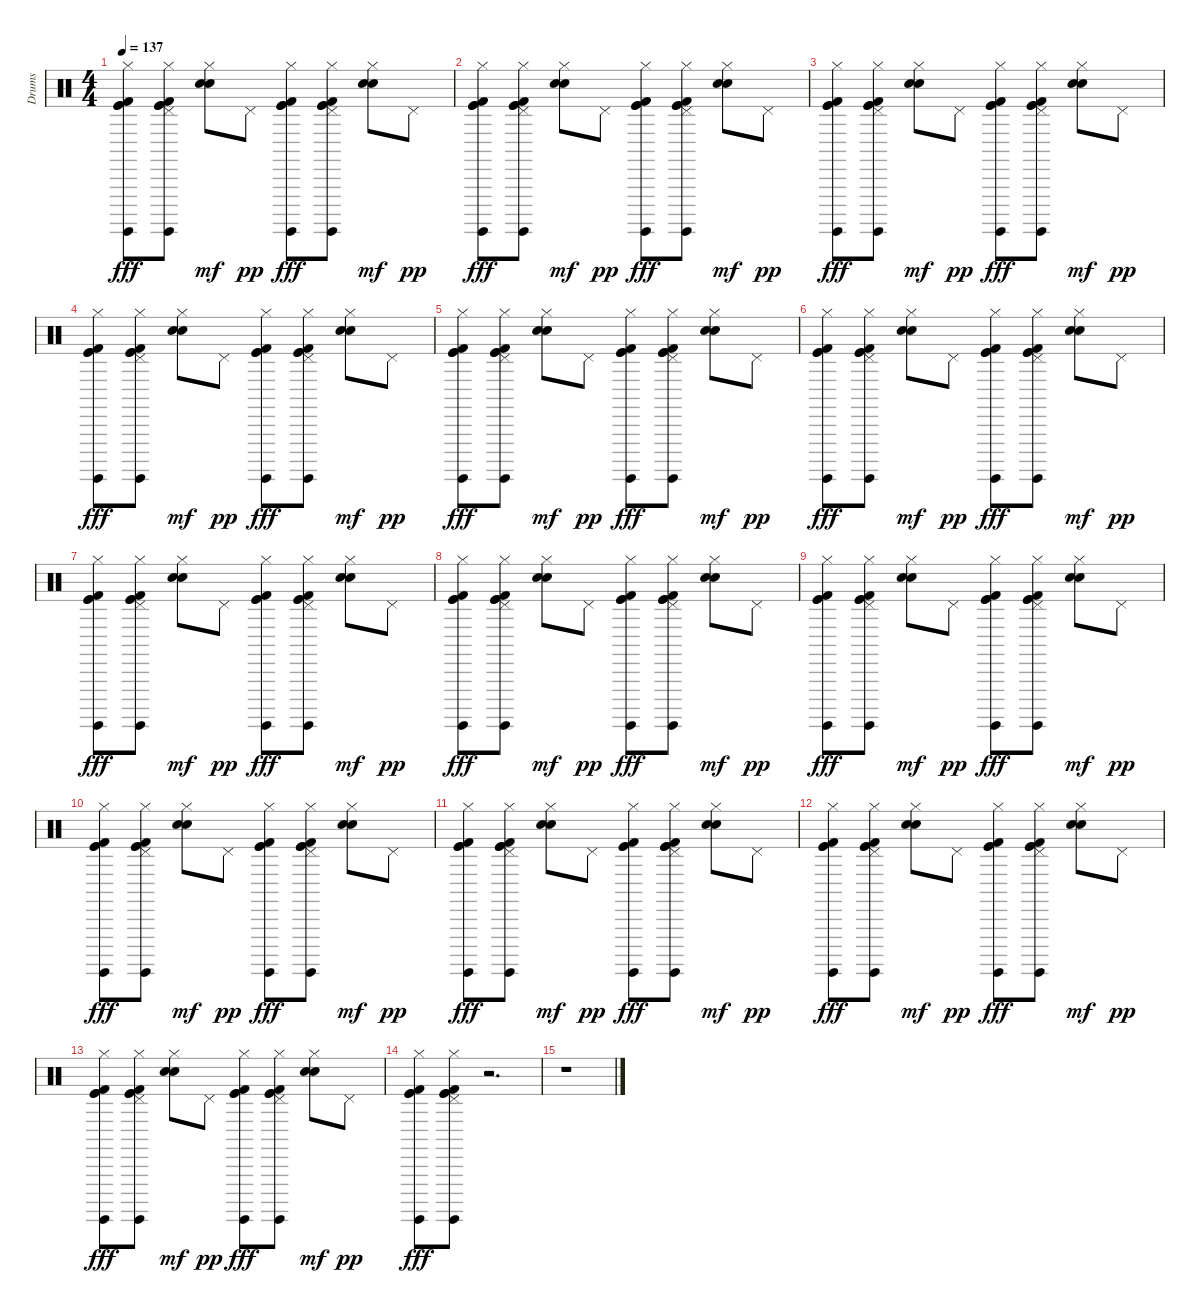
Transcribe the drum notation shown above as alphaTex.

\track ("Drums" "Drums") {instrument percussion}
\staff {score}
\articulation defaults
\ts (4 4)
\tempo 137
\clef neutral
\ks c
("Hi-Hat (closed)" "Kick (hit)" "Surdo (hit)" "Kick (hit) 2" "Kick (hit)").8{dy fff} ("Pedal Hi-Hat (hit)" "Hi-Hat (closed)" "Kick (hit)" "Surdo (hit)" "Kick (hit) 2" "Kick (hit)").8 ("Hi-Hat (closed)" "Hand Clap (hit)" "Snare (hit) 2").8{dy mf} "Pedal Hi-Hat (hit)".8{dy pp} ("Hi-Hat (closed)" "Kick (hit)" "Surdo (hit)" "Kick (hit) 2" "Kick (hit)").8{dy fff} ("Pedal Hi-Hat (hit)" "Hi-Hat (closed)" "Kick (hit)" "Surdo (hit)" "Kick (hit) 2" "Kick (hit)").8 ("Hi-Hat (closed)" "Hand Clap (hit)" "Snare (hit) 2").8{dy mf} "Pedal Hi-Hat (hit)".8{dy pp} |
("Hi-Hat (closed)" "Kick (hit)" "Surdo (hit)" "Kick (hit) 2" "Kick (hit)").8{dy fff} ("Pedal Hi-Hat (hit)" "Hi-Hat (closed)" "Kick (hit)" "Surdo (hit)" "Kick (hit) 2" "Kick (hit)").8 ("Hi-Hat (closed)" "Hand Clap (hit)" "Snare (hit) 2").8{dy mf} "Pedal Hi-Hat (hit)".8{dy pp} ("Hi-Hat (closed)" "Kick (hit)" "Surdo (hit)" "Kick (hit) 2" "Kick (hit)").8{dy fff} ("Pedal Hi-Hat (hit)" "Hi-Hat (closed)" "Kick (hit)" "Surdo (hit)" "Kick (hit) 2" "Kick (hit)").8 ("Hi-Hat (closed)" "Hand Clap (hit)" "Snare (hit) 2").8{dy mf} "Pedal Hi-Hat (hit)".8{dy pp} |
("Hi-Hat (closed)" "Kick (hit)" "Surdo (hit)" "Kick (hit) 2" "Kick (hit)").8{dy fff} ("Pedal Hi-Hat (hit)" "Hi-Hat (closed)" "Kick (hit)" "Surdo (hit)" "Kick (hit) 2" "Kick (hit)").8 ("Hi-Hat (closed)" "Hand Clap (hit)" "Snare (hit) 2").8{dy mf} "Pedal Hi-Hat (hit)".8{dy pp} ("Hi-Hat (closed)" "Kick (hit)" "Surdo (hit)" "Kick (hit) 2" "Kick (hit)").8{dy fff} ("Pedal Hi-Hat (hit)" "Hi-Hat (closed)" "Kick (hit)" "Surdo (hit)" "Kick (hit) 2" "Kick (hit)").8 ("Hi-Hat (closed)" "Hand Clap (hit)" "Snare (hit) 2").8{dy mf} "Pedal Hi-Hat (hit)".8{dy pp} |
("Hi-Hat (closed)" "Kick (hit)" "Surdo (hit)" "Kick (hit) 2" "Kick (hit)").8{dy fff} ("Pedal Hi-Hat (hit)" "Hi-Hat (closed)" "Kick (hit)" "Surdo (hit)" "Kick (hit) 2" "Kick (hit)").8 ("Hi-Hat (closed)" "Hand Clap (hit)" "Snare (hit) 2").8{dy mf} "Pedal Hi-Hat (hit)".8{dy pp} ("Hi-Hat (closed)" "Kick (hit)" "Surdo (hit)" "Kick (hit) 2" "Kick (hit)").8{dy fff} ("Pedal Hi-Hat (hit)" "Hi-Hat (closed)" "Kick (hit)" "Surdo (hit)" "Kick (hit) 2" "Kick (hit)").8 ("Hi-Hat (closed)" "Hand Clap (hit)" "Snare (hit) 2").8{dy mf} "Pedal Hi-Hat (hit)".8{dy pp} |
("Hi-Hat (closed)" "Kick (hit)" "Surdo (hit)" "Kick (hit) 2" "Kick (hit)").8{dy fff} ("Pedal Hi-Hat (hit)" "Hi-Hat (closed)" "Kick (hit)" "Surdo (hit)" "Kick (hit) 2" "Kick (hit)").8 ("Hi-Hat (closed)" "Hand Clap (hit)" "Snare (hit) 2").8{dy mf} "Pedal Hi-Hat (hit)".8{dy pp} ("Hi-Hat (closed)" "Kick (hit)" "Surdo (hit)" "Kick (hit) 2" "Kick (hit)").8{dy fff} ("Pedal Hi-Hat (hit)" "Hi-Hat (closed)" "Kick (hit)" "Surdo (hit)" "Kick (hit) 2" "Kick (hit)").8 ("Hi-Hat (closed)" "Hand Clap (hit)" "Snare (hit) 2").8{dy mf} "Pedal Hi-Hat (hit)".8{dy pp} |
("Hi-Hat (closed)" "Kick (hit)" "Surdo (hit)" "Kick (hit) 2" "Kick (hit)").8{dy fff} ("Pedal Hi-Hat (hit)" "Hi-Hat (closed)" "Kick (hit)" "Surdo (hit)" "Kick (hit) 2" "Kick (hit)").8 ("Hi-Hat (closed)" "Hand Clap (hit)" "Snare (hit) 2").8{dy mf} "Pedal Hi-Hat (hit)".8{dy pp} ("Hi-Hat (closed)" "Kick (hit)" "Surdo (hit)" "Kick (hit) 2" "Kick (hit)").8{dy fff} ("Pedal Hi-Hat (hit)" "Hi-Hat (closed)" "Kick (hit)" "Surdo (hit)" "Kick (hit) 2" "Kick (hit)").8 ("Hi-Hat (closed)" "Hand Clap (hit)" "Snare (hit) 2").8{dy mf} "Pedal Hi-Hat (hit)".8{dy pp} |
("Hi-Hat (closed)" "Kick (hit)" "Surdo (hit)" "Kick (hit) 2" "Kick (hit)").8{dy fff volume 15} ("Pedal Hi-Hat (hit)" "Hi-Hat (closed)" "Kick (hit)" "Surdo (hit)" "Kick (hit) 2" "Kick (hit)").8 ("Hi-Hat (closed)" "Hand Clap (hit)" "Snare (hit) 2").8{dy mf} "Pedal Hi-Hat (hit)".8{dy pp} ("Hi-Hat (closed)" "Kick (hit)" "Surdo (hit)" "Kick (hit) 2" "Kick (hit)").8{dy fff} ("Pedal Hi-Hat (hit)" "Hi-Hat (closed)" "Kick (hit)" "Surdo (hit)" "Kick (hit) 2" "Kick (hit)").8 ("Hi-Hat (closed)" "Hand Clap (hit)" "Snare (hit) 2").8{dy mf} "Pedal Hi-Hat (hit)".8{dy pp} |
("Hi-Hat (closed)" "Kick (hit)" "Surdo (hit)" "Kick (hit) 2" "Kick (hit)").8{dy fff} ("Pedal Hi-Hat (hit)" "Hi-Hat (closed)" "Kick (hit)" "Surdo (hit)" "Kick (hit) 2" "Kick (hit)").8 ("Hi-Hat (closed)" "Hand Clap (hit)" "Snare (hit) 2").8{dy mf} "Pedal Hi-Hat (hit)".8{dy pp} ("Hi-Hat (closed)" "Kick (hit)" "Surdo (hit)" "Kick (hit) 2" "Kick (hit)").8{dy fff} ("Pedal Hi-Hat (hit)" "Hi-Hat (closed)" "Kick (hit)" "Surdo (hit)" "Kick (hit) 2" "Kick (hit)").8 ("Hi-Hat (closed)" "Hand Clap (hit)" "Snare (hit) 2").8{dy mf} "Pedal Hi-Hat (hit)".8{dy pp} |
("Hi-Hat (closed)" "Kick (hit)" "Surdo (hit)" "Kick (hit) 2" "Kick (hit)").8{dy fff} ("Pedal Hi-Hat (hit)" "Hi-Hat (closed)" "Kick (hit)" "Surdo (hit)" "Kick (hit) 2" "Kick (hit)").8 ("Hi-Hat (closed)" "Hand Clap (hit)" "Snare (hit) 2").8{dy mf} "Pedal Hi-Hat (hit)".8{dy pp} ("Hi-Hat (closed)" "Kick (hit)" "Surdo (hit)" "Kick (hit) 2" "Kick (hit)").8{dy fff} ("Pedal Hi-Hat (hit)" "Hi-Hat (closed)" "Kick (hit)" "Surdo (hit)" "Kick (hit) 2" "Kick (hit)").8 ("Hi-Hat (closed)" "Hand Clap (hit)" "Snare (hit) 2").8{dy mf} "Pedal Hi-Hat (hit)".8{dy pp} |
("Hi-Hat (closed)" "Kick (hit)" "Surdo (hit)" "Kick (hit) 2" "Kick (hit)").8{dy fff} ("Pedal Hi-Hat (hit)" "Hi-Hat (closed)" "Kick (hit)" "Surdo (hit)" "Kick (hit) 2" "Kick (hit)").8 ("Hi-Hat (closed)" "Hand Clap (hit)" "Snare (hit) 2").8{dy mf} "Pedal Hi-Hat (hit)".8{dy pp} ("Hi-Hat (closed)" "Kick (hit)" "Surdo (hit)" "Kick (hit) 2" "Kick (hit)").8{dy fff} ("Pedal Hi-Hat (hit)" "Hi-Hat (closed)" "Kick (hit)" "Surdo (hit)" "Kick (hit) 2" "Kick (hit)").8 ("Hi-Hat (closed)" "Hand Clap (hit)" "Snare (hit) 2").8{dy mf} "Pedal Hi-Hat (hit)".8{dy pp} |
("Hi-Hat (closed)" "Kick (hit)" "Surdo (hit)" "Kick (hit) 2" "Kick (hit)").8{dy fff} ("Pedal Hi-Hat (hit)" "Hi-Hat (closed)" "Kick (hit)" "Surdo (hit)" "Kick (hit) 2" "Kick (hit)").8 ("Hi-Hat (closed)" "Hand Clap (hit)" "Snare (hit) 2").8{dy mf} "Pedal Hi-Hat (hit)".8{dy pp} ("Hi-Hat (closed)" "Kick (hit)" "Surdo (hit)" "Kick (hit) 2" "Kick (hit)").8{dy fff} ("Pedal Hi-Hat (hit)" "Hi-Hat (closed)" "Kick (hit)" "Surdo (hit)" "Kick (hit) 2" "Kick (hit)").8 ("Hi-Hat (closed)" "Hand Clap (hit)" "Snare (hit) 2").8{dy mf} "Pedal Hi-Hat (hit)".8{dy pp} |
("Hi-Hat (closed)" "Kick (hit)" "Surdo (hit)" "Kick (hit) 2" "Kick (hit)").8{dy fff} ("Pedal Hi-Hat (hit)" "Hi-Hat (closed)" "Kick (hit)" "Surdo (hit)" "Kick (hit) 2" "Kick (hit)").8 ("Hi-Hat (closed)" "Hand Clap (hit)" "Snare (hit) 2").8{dy mf} "Pedal Hi-Hat (hit)".8{dy pp} ("Hi-Hat (closed)" "Kick (hit)" "Surdo (hit)" "Kick (hit) 2" "Kick (hit)").8{dy fff} ("Pedal Hi-Hat (hit)" "Hi-Hat (closed)" "Kick (hit)" "Surdo (hit)" "Kick (hit) 2" "Kick (hit)").8 ("Hi-Hat (closed)" "Hand Clap (hit)" "Snare (hit) 2").8{dy mf} "Pedal Hi-Hat (hit)".8{dy pp} |
("Hi-Hat (closed)" "Kick (hit)" "Surdo (hit)" "Kick (hit) 2" "Kick (hit)").8{dy fff} ("Pedal Hi-Hat (hit)" "Hi-Hat (closed)" "Kick (hit)" "Surdo (hit)" "Kick (hit) 2" "Kick (hit)").8 ("Hi-Hat (closed)" "Hand Clap (hit)" "Snare (hit) 2").8{dy mf} "Pedal Hi-Hat (hit)".8{dy pp} ("Hi-Hat (closed)" "Kick (hit)" "Surdo (hit)" "Kick (hit) 2" "Kick (hit)").8{dy fff} ("Pedal Hi-Hat (hit)" "Hi-Hat (closed)" "Kick (hit)" "Surdo (hit)" "Kick (hit) 2" "Kick (hit)").8 ("Hi-Hat (closed)" "Hand Clap (hit)" "Snare (hit) 2").8{dy mf} "Pedal Hi-Hat (hit)".8{dy pp} |
("Hi-Hat (closed)" "Kick (hit)" "Surdo (hit)" "Kick (hit) 2" "Kick (hit)").8{dy fff} ("Pedal Hi-Hat (hit)" "Hi-Hat (closed)" "Kick (hit)" "Surdo (hit)" "Kick (hit) 2" "Kick (hit)").8 r.2{d} |
r.1
